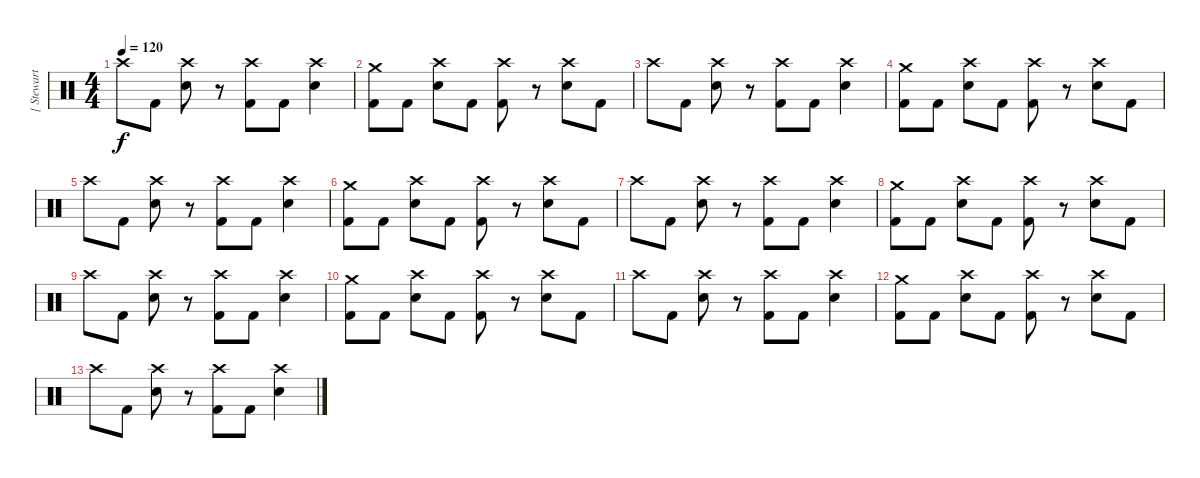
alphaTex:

\track ("[ Stewart ] " "[ Stewart ") {instrument percussion}
\staff {score}
\articulation defaults
\ts (4 4)
\tempo 120
\clef neutral
\ks c "Crash high (hit)".8{dy f} "Kick (hit) 2".8
("Electric Snare (hit)" "Crash high (hit)").8 r.8 ("Kick (hit) 2" "Crash high (hit)").8 "Kick (hit) 2".8 ("Electric Snare (hit)" "Crash high (hit)").4 |
("Kick (hit) 2" "Crash medium (hit)").8 "Kick (hit) 2".8 ("Electric Snare (hit)" "Crash high (hit)").8 "Kick (hit) 2".8 ("Kick (hit) 2" "Crash high (hit)").8 r.8 ("Electric Snare (hit)" "Crash high (hit)").8 "Kick (hit) 2".8 |
"Crash high (hit)".8 "Kick (hit) 2".8 ("Electric Snare (hit)" "Crash high (hit)").8 r.8 ("Kick (hit) 2" "Crash high (hit)").8 "Kick (hit) 2".8 ("Electric Snare (hit)" "Crash high (hit)").4 |
("Kick (hit) 2" "Crash medium (hit)").8 "Kick (hit) 2".8 ("Electric Snare (hit)" "Crash high (hit)").8 "Kick (hit) 2".8 ("Kick (hit) 2" "Crash high (hit)").8 r.8 ("Electric Snare (hit)" "Crash high (hit)").8 "Kick (hit) 2".8 |
"Crash high (hit)".8 "Kick (hit) 2".8 ("Electric Snare (hit)" "Crash high (hit)").8 r.8 ("Kick (hit) 2" "Crash high (hit)").8 "Kick (hit) 2".8 ("Electric Snare (hit)" "Crash high (hit)").4 |
("Kick (hit) 2" "Crash medium (hit)").8{volume 0} "Kick (hit) 2".8 ("Electric Snare (hit)" "Crash high (hit)").8 "Kick (hit) 2".8 ("Kick (hit) 2" "Crash high (hit)").8 r.8 ("Electric Snare (hit)" "Crash high (hit)").8 "Kick (hit) 2".8 |
"Crash high (hit)".8 "Kick (hit) 2".8 ("Electric Snare (hit)" "Crash high (hit)").8 r.8 ("Kick (hit) 2" "Crash high (hit)").8 "Kick (hit) 2".8 ("Electric Snare (hit)" "Crash high (hit)").4 |
("Kick (hit) 2" "Crash medium (hit)").8 "Kick (hit) 2".8 ("Electric Snare (hit)" "Crash high (hit)").8 "Kick (hit) 2".8 ("Kick (hit) 2" "Crash high (hit)").8 r.8 ("Electric Snare (hit)" "Crash high (hit)").8 "Kick (hit) 2".8 |
"Crash high (hit)".8 "Kick (hit) 2".8 ("Electric Snare (hit)" "Crash high (hit)").8 r.8 ("Kick (hit) 2" "Crash high (hit)").8 "Kick (hit) 2".8 ("Electric Snare (hit)" "Crash high (hit)").4 |
("Kick (hit) 2" "Crash medium (hit)").8 "Kick (hit) 2".8 ("Electric Snare (hit)" "Crash high (hit)").8 "Kick (hit) 2".8 ("Kick (hit) 2" "Crash high (hit)").8 r.8 ("Electric Snare (hit)" "Crash high (hit)").8 "Kick (hit) 2".8 |
"Crash high (hit)".8 "Kick (hit) 2".8 ("Electric Snare (hit)" "Crash high (hit)").8 r.8 ("Kick (hit) 2" "Crash high (hit)").8 "Kick (hit) 2".8 ("Electric Snare (hit)" "Crash high (hit)").4 |
("Kick (hit) 2" "Crash medium (hit)").8 "Kick (hit) 2".8 ("Electric Snare (hit)" "Crash high (hit)").8 "Kick (hit) 2".8 ("Kick (hit) 2" "Crash high (hit)").8 r.8 ("Electric Snare (hit)" "Crash high (hit)").8 "Kick (hit) 2".8 |
"Crash high (hit)".8 "Kick (hit) 2".8 ("Electric Snare (hit)" "Crash high (hit)").8 r.8 ("Kick (hit) 2" "Crash high (hit)").8 "Kick (hit) 2".8 ("Electric Snare (hit)" "Crash high (hit)").4
